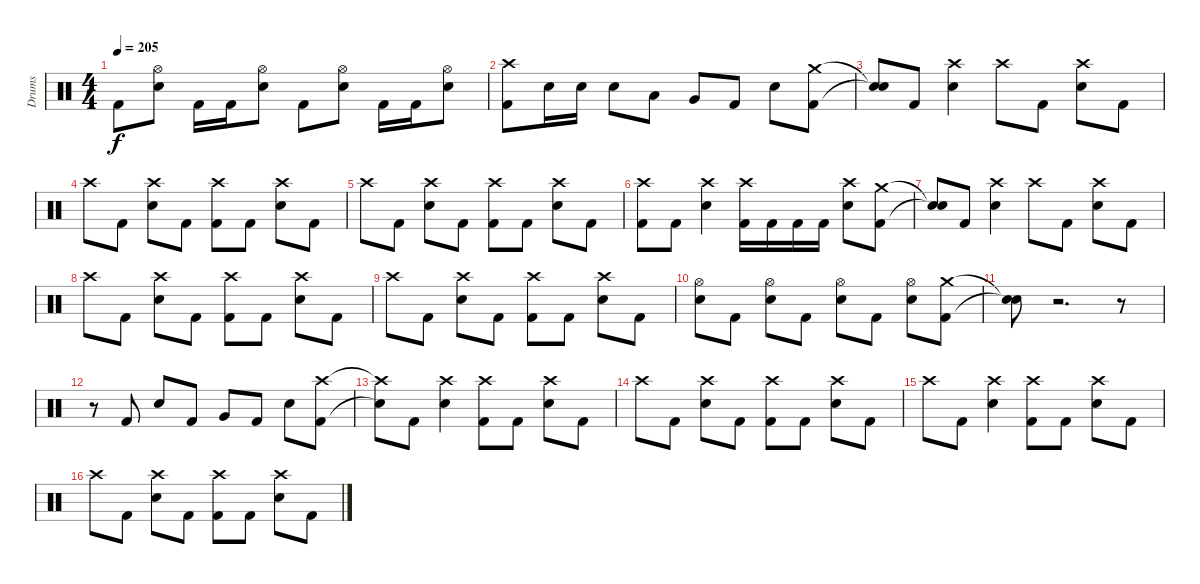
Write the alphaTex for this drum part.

\track ("Drums" "Drums") {instrument percussion}
\staff {score}
\articulation defaults
\ts (4 4)
\tempo 205
\clef neutral
\ks c "Kick (hit) 2".8{dy f}
("Hi-Hat (open)" "Electric Snare (hit)").8 "Kick (hit) 2".16 "Kick (hit) 2".16 ("Hi-Hat (open)" "Electric Snare (hit)").8 "Kick (hit) 2".8 ("Hi-Hat (open)" "Electric Snare (hit)").8 "Kick (hit) 2".16 "Kick (hit) 2".16 ("Hi-Hat (open)" "Electric Snare (hit)").8 |
("Crash high (hit)" "Kick (hit) 2").8 "Electric Snare (hit)".16 "Electric Snare (hit)".16 "Electric Snare (hit)".8 "Low Tom (hit)".8 "Very Low Tom (hit)".8 "Kick (hit) 2".8 "Electric Snare (hit)".8 ("Crash medium (hit)" "Kick (hit) 2").8 |
("Snare (hit)"{t} "Snare (hit)"{t}).8 "Kick (hit) 2".8 ("Crash high (hit)" "Electric Snare (hit)").4 "Crash high (hit)".8 "Kick (hit) 2".8 ("Crash high (hit)" "Electric Snare (hit)").8 "Kick (hit) 2".8 |
"Crash high (hit)".8 "Kick (hit) 2".8 ("Crash high (hit)" "Electric Snare (hit)").8 "Kick (hit) 2".8 ("Crash high (hit)" "Kick (hit) 2").8 "Kick (hit) 2".8 ("Crash high (hit)" "Electric Snare (hit)").8 "Kick (hit) 2".8 |
"Crash high (hit)".8 "Kick (hit) 2".8 ("Crash high (hit)" "Electric Snare (hit)").8 "Kick (hit) 2".8 ("Crash high (hit)" "Kick (hit) 2").8 "Kick (hit) 2".8 ("Crash high (hit)" "Electric Snare (hit)").8 "Kick (hit) 2".8 |
("Crash high (hit)" "Kick (hit) 2").8 "Kick (hit) 2".8 ("Crash high (hit)" "Electric Snare (hit)").4 ("Crash high (hit)" "Kick (hit) 2").16 "Kick (hit) 2".16 "Kick (hit) 2".16 "Kick (hit) 2".16 ("Crash high (hit)" "Electric Snare (hit)").8 ("Crash medium (hit)" "Kick (hit) 2").8 |
("Snare (hit)"{t} "Snare (hit)"{t}).8 "Kick (hit) 2".8 ("Crash high (hit)" "Electric Snare (hit)").4 "Crash high (hit)".8 "Kick (hit) 2".8 ("Crash high (hit)" "Electric Snare (hit)").8 "Kick (hit) 2".8 |
"Crash high (hit)".8 "Kick (hit) 2".8 ("Crash high (hit)" "Electric Snare (hit)").8 "Kick (hit) 2".8 ("Crash high (hit)" "Kick (hit) 2").8 "Kick (hit) 2".8 ("Crash high (hit)" "Electric Snare (hit)").8 "Kick (hit) 2".8 |
"Crash high (hit)".8 "Kick (hit) 2".8 ("Crash high (hit)" "Electric Snare (hit)").8 "Kick (hit) 2".8 ("Crash high (hit)" "Kick (hit) 2").8 "Kick (hit) 2".8 ("Crash high (hit)" "Electric Snare (hit)").8 "Kick (hit) 2".8 |
("Hi-Hat (open)" "Electric Snare (hit)").8 "Kick (hit) 2".8 ("Hi-Hat (open)" "Electric Snare (hit)").8 "Kick (hit) 2".8 ("Hi-Hat (open)" "Electric Snare (hit)").8 "Kick (hit) 2".8 ("Hi-Hat (open)" "Electric Snare (hit)").8 ("Crash medium (hit)" "Kick (hit) 2").8 |
("Snare (hit)"{t} "Snare (hit)"{t}).8 r.2{d volume 0} r.8 |
r.8 "Kick (hit) 2".8{volume 16} "Electric Snare (hit)".8 "Kick (hit) 2".8 "Very Low Tom (hit)".8 "Kick (hit) 2".8 "Electric Snare (hit)".8 ("Crash high (hit)" "Kick (hit) 2").8 |
("Crash high (hit)"{t} "Snare (hit)"{t}).8 "Kick (hit) 2".8 ("Crash high (hit)" "Electric Snare (hit)").4 ("Crash high (hit)" "Kick (hit) 2").8 "Kick (hit) 2".8 ("Crash high (hit)" "Electric Snare (hit)").8 "Kick (hit) 2".8 |
"Crash high (hit)".8 "Kick (hit) 2".8 ("Crash high (hit)" "Electric Snare (hit)").8 "Kick (hit) 2".8 ("Crash high (hit)" "Kick (hit) 2").8 "Kick (hit) 2".8 ("Crash high (hit)" "Electric Snare (hit)").8 "Kick (hit) 2".8 |
"Crash high (hit)".8 "Kick (hit) 2".8 ("Crash high (hit)" "Electric Snare (hit)").4 ("Crash high (hit)" "Kick (hit) 2").8 "Kick (hit) 2".8 ("Crash high (hit)" "Electric Snare (hit)").8 "Kick (hit) 2".8 |
"Crash high (hit)".8 "Kick (hit) 2".8 ("Crash high (hit)" "Electric Snare (hit)").8 "Kick (hit) 2".8 ("Crash high (hit)" "Kick (hit) 2").8 "Kick (hit) 2".8 ("Crash high (hit)" "Electric Snare (hit)").8 "Kick (hit) 2".8
